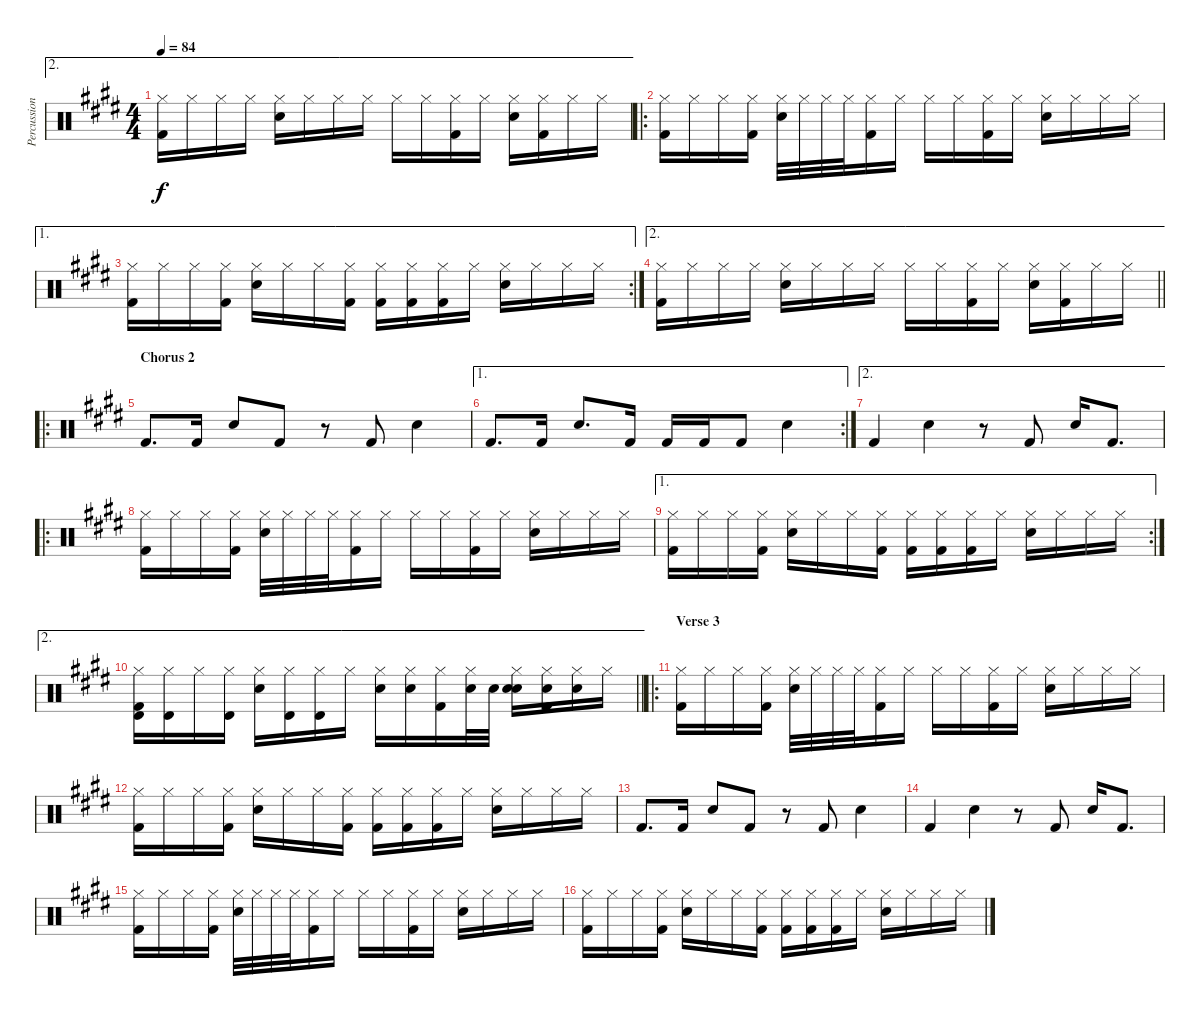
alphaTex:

\track ("Percussion" "Percussion") {instrument percussion}
\staff {score}
\articulation defaults
\ae 2
\ts (4 4)
\tempo 84
\clef neutral
\ks e
("Hi-Hat (closed)" "Kick (hit) 2").16{dy f} "Hi-Hat (closed)".16 "Hi-Hat (closed)".16 "Hi-Hat (closed)".16 ("Hi-Hat (closed)" "Hand Clap (hit)").16 "Hi-Hat (closed)".16 "Hi-Hat (closed)".16 "Hi-Hat (closed)".16 "Hi-Hat (closed)".16 "Hi-Hat (closed)".16 ("Hi-Hat (closed)" "Kick (hit) 2").16 "Hi-Hat (closed)".16 ("Hi-Hat (closed)" "Hand Clap (hit)").16 ("Hi-Hat (closed)" "Kick (hit) 2").16 "Hi-Hat (closed)".16 "Hi-Hat (closed)".16 |
\ro
("Hi-Hat (closed)" "Kick (hit) 2").16 "Hi-Hat (closed)".16 "Hi-Hat (closed)".16 ("Hi-Hat (closed)" "Kick (hit) 2").16 ("Hi-Hat (closed)" "Hand Clap (hit)").32 "Hi-Hat (closed)".32 "Hi-Hat (closed)".32 "Hi-Hat (closed)".32 ("Hi-Hat (closed)" "Kick (hit) 2").16 "Hi-Hat (closed)".16 "Hi-Hat (closed)".16 "Hi-Hat (closed)".16 ("Hi-Hat (closed)" "Kick (hit) 2").16 "Hi-Hat (closed)".16 ("Hi-Hat (closed)" "Hand Clap (hit)").16 "Hi-Hat (closed)".16 "Hi-Hat (closed)".16 "Hi-Hat (closed)".16 |
\ae 1
\rc 2
("Hi-Hat (closed)" "Kick (hit) 2").16 "Hi-Hat (closed)".16 "Hi-Hat (closed)".16 ("Hi-Hat (closed)" "Kick (hit) 2").16 ("Hi-Hat (closed)" "Hand Clap (hit)").16 "Hi-Hat (closed)".16 "Hi-Hat (closed)".16 ("Hi-Hat (closed)" "Kick (hit) 2").16 ("Hi-Hat (closed)" "Kick (hit) 2").16 ("Hi-Hat (closed)" "Kick (hit) 2").16 ("Hi-Hat (closed)" "Kick (hit) 2").16 "Hi-Hat (closed)".16 ("Hi-Hat (closed)" "Hand Clap (hit)").16 "Hi-Hat (closed)".16 "Hi-Hat (closed)".16 "Hi-Hat (closed)".16 |
\ae 2
\barLineRight lightlight
("Hi-Hat (closed)" "Kick (hit) 2").16 "Hi-Hat (closed)".16 "Hi-Hat (closed)".16 "Hi-Hat (closed)".16 ("Hi-Hat (closed)" "Hand Clap (hit)").16 "Hi-Hat (closed)".16 "Hi-Hat (closed)".16 "Hi-Hat (closed)".16 "Hi-Hat (closed)".16 "Hi-Hat (closed)".16 ("Hi-Hat (closed)" "Kick (hit) 2").16 "Hi-Hat (closed)".16 ("Hi-Hat (closed)" "Hand Clap (hit)").16 ("Hi-Hat (closed)" "Kick (hit) 2").16 "Hi-Hat (closed)".16 "Hi-Hat (closed)".16 |
\ro
\section ("" "Chorus 2")
"Kick (hit) 2".8{d} "Kick (hit) 2".16 "Hand Clap (hit)".8 "Kick (hit) 2".8 r.8 "Kick (hit) 2".8 "Hand Clap (hit)".4 |
\ae 1
\rc 2 "Kick (hit) 2".8{d} "Kick (hit) 2".16 "Hand Clap (hit)".8{d} "Kick (hit) 2".16 "Kick (hit) 2".16 "Kick (hit) 2".16 "Kick (hit) 2".8 "Hand Clap (hit)".4
|
\ae 2 "Kick (hit) 2".4 "Hand Clap (hit)".4
r.8 "Kick (hit) 2".8 "Hand Clap (hit)".16 "Kick (hit) 2".8{d} |
\ro
("Hi-Hat (closed)" "Kick (hit) 2").16 "Hi-Hat (closed)".16 "Hi-Hat (closed)".16 ("Hi-Hat (closed)" "Kick (hit) 2").16 ("Hi-Hat (closed)" "Hand Clap (hit)").32 "Hi-Hat (closed)".32 "Hi-Hat (closed)".32 "Hi-Hat (closed)".32 ("Hi-Hat (closed)" "Kick (hit) 2").16 "Hi-Hat (closed)".16 "Hi-Hat (closed)".16 "Hi-Hat (closed)".16 ("Hi-Hat (closed)" "Kick (hit) 2").16 "Hi-Hat (closed)".16 ("Hi-Hat (closed)" "Hand Clap (hit)").16 "Hi-Hat (closed)".16 "Hi-Hat (closed)".16 "Hi-Hat (closed)".16 |
\ae 1
\rc 2
("Hi-Hat (closed)" "Kick (hit) 2").16 "Hi-Hat (closed)".16 "Hi-Hat (closed)".16 ("Hi-Hat (closed)" "Kick (hit) 2").16 ("Hi-Hat (closed)" "Hand Clap (hit)").16 "Hi-Hat (closed)".16 "Hi-Hat (closed)".16 ("Hi-Hat (closed)" "Kick (hit) 2").16 ("Hi-Hat (closed)" "Kick (hit) 2").16 ("Hi-Hat (closed)" "Kick (hit) 2").16 ("Hi-Hat (closed)" "Kick (hit) 2").16 "Hi-Hat (closed)".16 ("Hi-Hat (closed)" "Hand Clap (hit)").16 "Hi-Hat (closed)".16 "Hi-Hat (closed)".16 "Hi-Hat (closed)".16 |
\ae 2
\barLineRight lightlight
("Hi-Hat (closed)" "Timbale high (hit)" "Kick (hit) 2").16 ("Hi-Hat (closed)" "Timbale high (hit)").16 "Hi-Hat (closed)".16 ("Hi-Hat (closed)" "Timbale high (hit)").16 ("Hi-Hat (closed)" "Hand Clap (hit)").16 ("Hi-Hat (closed)" "Timbale high (hit)").16 ("Hi-Hat (closed)" "Timbale high (hit)").16 "Hi-Hat (closed)".16 ("Hi-Hat (closed)" "Snare (hit) 2").16 ("Hi-Hat (closed)" "Snare (hit) 2").16 ("Hi-Hat (closed)" "Kick (hit) 2").16 ("Hi-Hat (closed)" "Snare (hit) 2").32 "Snare (hit) 2".32 ("Hi-Hat (closed)" "Snare (hit) 2" "Hand Clap (hit)").16 ("Hi-Hat (closed)" "Snare (hit) 2" "Kick (hit) 2").16 ("Hi-Hat (closed)" "Snare (hit) 2").16 "Hi-Hat (closed)".16 |
\ro
\section ("" "Verse 3")
("Hi-Hat (closed)" "Kick (hit) 2").16 "Hi-Hat (closed)".16 "Hi-Hat (closed)".16 ("Hi-Hat (closed)" "Kick (hit) 2").16 ("Hi-Hat (closed)" "Hand Clap (hit)").32 "Hi-Hat (closed)".32 "Hi-Hat (closed)".32 "Hi-Hat (closed)".32 ("Hi-Hat (closed)" "Kick (hit) 2").16 "Hi-Hat (closed)".16 "Hi-Hat (closed)".16 "Hi-Hat (closed)".16 ("Hi-Hat (closed)" "Kick (hit) 2").16 "Hi-Hat (closed)".16 ("Hi-Hat (closed)" "Hand Clap (hit)").16 "Hi-Hat (closed)".16 "Hi-Hat (closed)".16 "Hi-Hat (closed)".16 |
("Hi-Hat (closed)" "Kick (hit) 2").16 "Hi-Hat (closed)".16 "Hi-Hat (closed)".16 ("Hi-Hat (closed)" "Kick (hit) 2").16 ("Hi-Hat (closed)" "Hand Clap (hit)").16 "Hi-Hat (closed)".16 "Hi-Hat (closed)".16 ("Hi-Hat (closed)" "Kick (hit) 2").16 ("Hi-Hat (closed)" "Kick (hit) 2").16 ("Hi-Hat (closed)" "Kick (hit) 2").16 ("Hi-Hat (closed)" "Kick (hit) 2").16 "Hi-Hat (closed)".16 ("Hi-Hat (closed)" "Hand Clap (hit)").16 "Hi-Hat (closed)".16 "Hi-Hat (closed)".16 "Hi-Hat (closed)".16 |
"Kick (hit) 2".8{d} "Kick (hit) 2".16 "Hand Clap (hit)".8 "Kick (hit) 2".8 r.8 "Kick (hit) 2".8 "Hand Clap (hit)".4 |
"Kick (hit) 2".4 "Hand Clap (hit)".4 r.8 "Kick (hit) 2".8 "Hand Clap (hit)".16 "Kick (hit) 2".8{d} |
("Hi-Hat (closed)" "Kick (hit) 2").16 "Hi-Hat (closed)".16 "Hi-Hat (closed)".16 ("Hi-Hat (closed)" "Kick (hit) 2").16 ("Hi-Hat (closed)" "Hand Clap (hit)").32 "Hi-Hat (closed)".32 "Hi-Hat (closed)".32 "Hi-Hat (closed)".32 ("Hi-Hat (closed)" "Kick (hit) 2").16 "Hi-Hat (closed)".16 "Hi-Hat (closed)".16 "Hi-Hat (closed)".16 ("Hi-Hat (closed)" "Kick (hit) 2").16 "Hi-Hat (closed)".16 ("Hi-Hat (closed)" "Hand Clap (hit)").16 "Hi-Hat (closed)".16 "Hi-Hat (closed)".16 "Hi-Hat (closed)".16 |
("Hi-Hat (closed)" "Kick (hit) 2").16 "Hi-Hat (closed)".16 "Hi-Hat (closed)".16 ("Hi-Hat (closed)" "Kick (hit) 2").16 ("Hi-Hat (closed)" "Hand Clap (hit)").16 "Hi-Hat (closed)".16 "Hi-Hat (closed)".16 ("Hi-Hat (closed)" "Kick (hit) 2").16 ("Hi-Hat (closed)" "Kick (hit) 2").16 ("Hi-Hat (closed)" "Kick (hit) 2").16 ("Hi-Hat (closed)" "Kick (hit) 2").16 "Hi-Hat (closed)".16 ("Hi-Hat (closed)" "Hand Clap (hit)").16 "Hi-Hat (closed)".16 "Hi-Hat (closed)".16 "Hi-Hat (closed)".16
